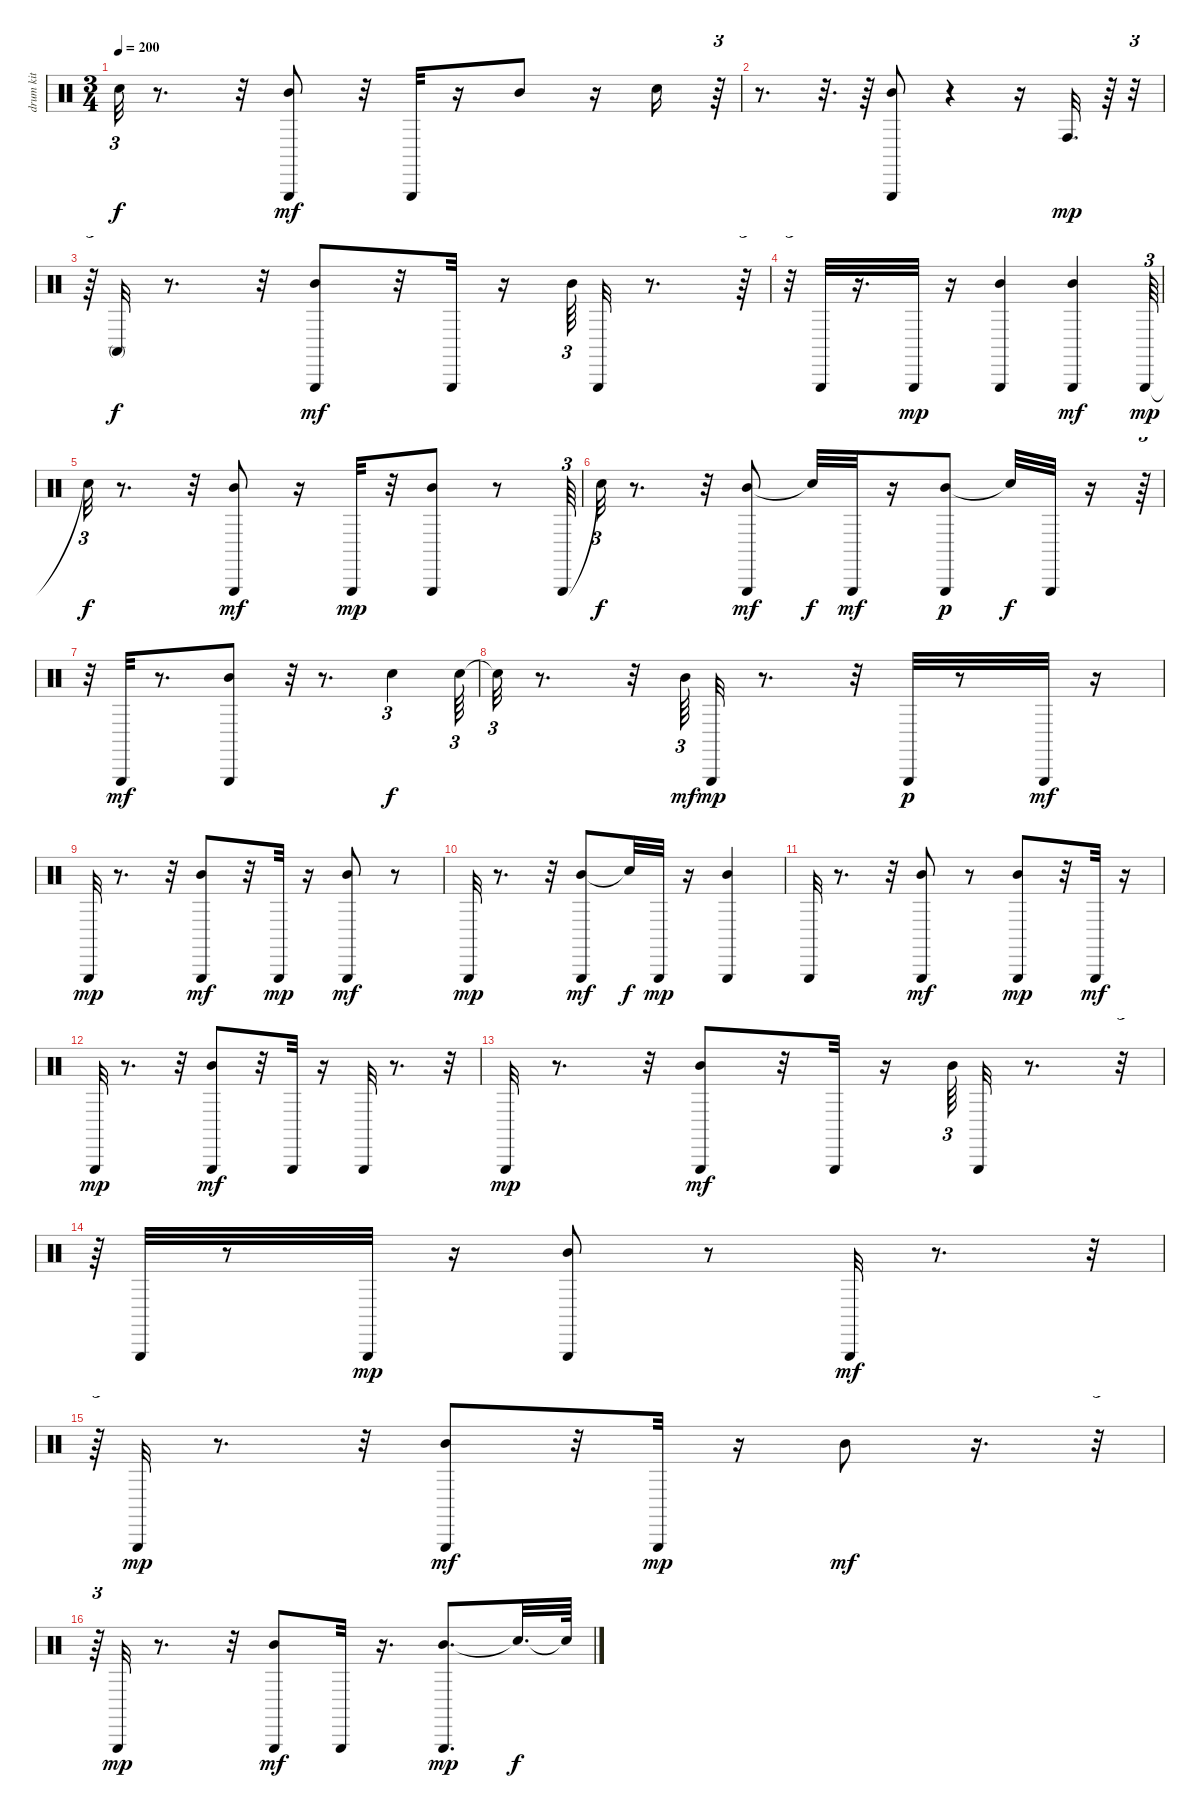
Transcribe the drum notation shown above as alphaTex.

\track (" drum kit (hi-hat/cymbals)" " drum kit ") {instrument percussion}
\staff {score}
\articulation defaults
\ts (3 4)
\tempo 200
\clef neutral
\ks c "Snare (hit)"{t}.32{tu (3 2) dy f}
r.8{d} r.32 ("Mid Tom (hit)" "Triangle (hit)").8{dy mf} r.32 "Triangle (hit)".32 r.16 "Mid Tom (hit)".8 r.16 "Snare (hit)".16 r.64{tu (3 2)} |
r.8{d} r.32{d} r.64 ("Mid Tom (hit)" "Triangle (hit)").8 r.4 r.16 "Conga high (hit)".32{d dy mp} r.64 r.32{tu (3 2)} |
r.64{tu (3 2)} "Conga high (mute)".32{dy f} r.8{d} r.32 ("Mid Tom (hit)" "Triangle (hit)").8{dy mf} r.32 "Triangle (hit)".32 r.16 "Mid Tom (hit)".64{tu (3 2)} "Triangle (hit)".32 r.8{d} r.64{tu (3 2)} |
r.32{tu (3 2)} "Triangle (hit)".32 r.16{d} "Triangle (hit)".32{dy mp} r.16 ("Mid Tom (hit)" "Triangle (hit)").4 ("Mid Tom (hit)" "Triangle (hit)").4{dy mf} "Triangle (hit)".64{tu (3 2) dy mp} |
"Snare (hit)"{t}.32{tu (3 2) dy f} r.8{d} r.32 ("Mid Tom (hit)" "Triangle (hit)").8{dy mf} r.16 "Triangle (hit)".32{dy mp} r.32 ("Mid Tom (hit)" "Triangle (hit)").8 r.8 "Triangle (hit)".64{tu (3 2)} |
"Snare (hit)"{t}.32{tu (3 2) dy f} r.8{d} r.32 ("Mid Tom (hit)" "Triangle (hit)").8{dy mf} "Snare (hit)"{t}.32{dy f} "Triangle (hit)".32{dy mf} r.16 ("Mid Tom (hit)" "Triangle (hit)").8{dy p} "Snare (hit)"{t}.32{dy f} "Triangle (hit)".32 r.16 r.64{tu (3 2)} |
r.32{tu (3 2)} "Triangle (hit)".32{dy mf} r.8{d} ("Mid Tom (hit)" "Triangle (hit)").8 r.32{tu (3 2)} r.8{d} "Snare (hit)".4{tu (3 2) dy f} "Snare (hit)".64{tu (3 2)} |
"Snare (hit)"{t}.32{tu (3 2)} r.8{d} r.32 "Mid Tom (hit)".64{tu (3 2) dy mf} "Triangle (hit)".32{dy mp} r.8{d} r.32 "Triangle (hit)".32{dy p} r.8 "Triangle (hit)".32{dy mf} r.16 |
"Triangle (hit)".32{dy mp} r.8{d} r.32 ("Mid Tom (hit)" "Triangle (hit)").8{dy mf} r.32 "Triangle (hit)".32{dy mp} r.16 ("Mid Tom (hit)" "Triangle (hit)").8{dy mf} r.8 |
"Triangle (hit)".32{dy mp} r.8{d} r.32 ("Mid Tom (hit)" "Triangle (hit)").8{dy mf} "Snare (hit)"{t}.32{dy f} "Triangle (hit)".32{dy mp} r.16 ("Mid Tom (hit)" "Triangle (hit)").4 |
"Triangle (hit)".32 r.8{d} r.32 ("Mid Tom (hit)" "Triangle (hit)").8{dy mf} r.8 ("Mid Tom (hit)" "Triangle (hit)").8{dy mp} r.32 "Triangle (hit)".32{dy mf} r.16 |
"Triangle (hit)".32{dy mp} r.8{d} r.32 ("Mid Tom (hit)" "Triangle (hit)").8{dy mf} r.32 "Triangle (hit)".32 r.16 "Triangle (hit)".32 r.8{d} r.32 |
"Triangle (hit)".32{dy mp} r.8{d} r.32 ("Mid Tom (hit)" "Triangle (hit)").8{dy mf} r.32 "Triangle (hit)".32 r.16 "Mid Tom (hit)".64{tu (3 2)} "Triangle (hit)".32 r.8{d} r.32{tu (3 2)} |
r.64{tu (3 2)} "Triangle (hit)".32 r.8 "Triangle (hit)".32{dy mp} r.16 ("Mid Tom (hit)" "Triangle (hit)").8 r.8 "Triangle (hit)".32{dy mf} r.8{d} r.32{tu (3 2)} |
r.64{tu (3 2)} "Triangle (hit)".32{dy mp} r.8{d} r.32 ("Mid Tom (hit)" "Triangle (hit)").8{dy mf} r.32 "Triangle (hit)".32{dy mp} r.16 "Mid Tom (hit)".8{dy mf} r.16{d} r.32{tu (3 2)} |
r.64{tu (3 2)} "Triangle (hit)".32{dy mp} r.8{d} r.32 ("Mid Tom (hit)" "Triangle (hit)").8{dy mf} "Triangle (hit)".32 r.16{d} ("Mid Tom (hit)" "Triangle (hit)").8{d dy mp} "Snare (hit)"{t}.32{d dy f} "Snare (hit)"{t}.64
